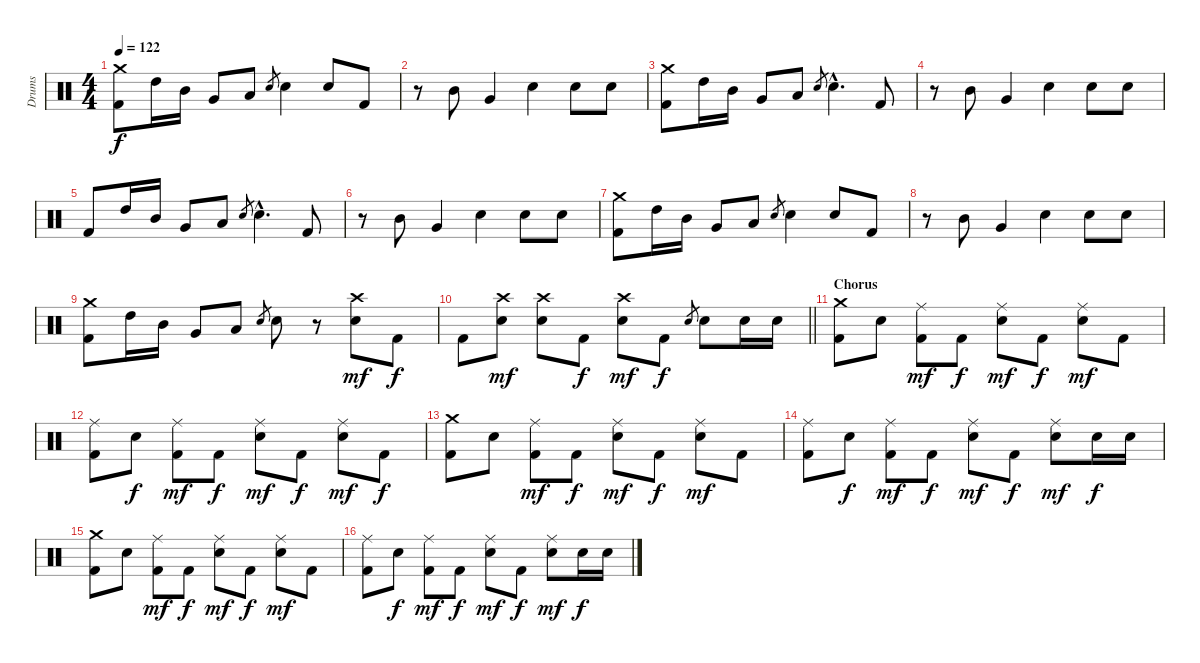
\track ("Drums" "Drums") {instrument percussion}
\staff {score}
\articulation defaults
\ts (4 4)
\tempo 122
\clef neutral
\ks c
("Kick (hit) 2" "Crash medium (hit)").8{dy f} "High Tom (hit)".16 "Mid Tom (hit)".16 "Very Low Tom (hit)".8 "Low Floor Tom (hit)".8 "Snare (hit) 2".8{gr} "Snare (hit) 2".4 "Snare (hit) 2".8 "Kick (hit) 2".8 |
r.8 "Mid Tom (hit)".8 "Very Low Tom (hit)".4 "Snare (hit) 2".4 "Snare (hit) 2".8 "Snare (hit) 2".8 |
("Kick (hit) 2" "Crash medium (hit)").8 "High Tom (hit)".16 "Mid Tom (hit)".16 "Very Low Tom (hit)".8 "Low Floor Tom (hit)".8 "Snare (hit) 2".8{gr} "Snare (hit) 2"{hac}.4{d} "Kick (hit) 2".8 |
r.8 "Mid Tom (hit)".8 "Very Low Tom (hit)".4 "Snare (hit) 2".4 "Snare (hit) 2".8 "Snare (hit) 2".8 |
"Kick (hit) 2".8 "High Tom (hit)".16 "Mid Tom (hit)".16 "Very Low Tom (hit)".8 "Low Floor Tom (hit)".8 "Snare (hit) 2".8{gr} "Snare (hit) 2"{hac}.4{d} "Kick (hit) 2".8 |
r.8 "Mid Tom (hit)".8 "Very Low Tom (hit)".4 "Snare (hit) 2".4 "Snare (hit) 2".8 "Snare (hit) 2".8 |
("Kick (hit) 2" "Crash medium (hit)").8 "High Tom (hit)".16 "Mid Tom (hit)".16 "Very Low Tom (hit)".8 "Low Floor Tom (hit)".8 "Snare (hit) 2".8{gr} "Snare (hit) 2".4 "Snare (hit) 2".8 "Kick (hit) 2".8 |
r.8 "Mid Tom (hit)".8 "Very Low Tom (hit)".4 "Snare (hit) 2".4 "Snare (hit) 2".8 "Snare (hit) 2".8 |
("Kick (hit) 2" "Crash medium (hit)").8 "High Tom (hit)".16 "Mid Tom (hit)".16 "Very Low Tom (hit)".8 "Low Floor Tom (hit)".8 "Snare (hit) 2".8{gr} "Snare (hit) 2".8 r.8 ("Snare (hit) 2" "Crash high (hit)").8{dy mf} "Kick (hit) 2".8{dy f} |
\barLineRight lightlight "Kick (hit) 2".8
("Crash high (hit)" "Snare (hit) 2").8{dy mf} ("Crash high (hit)" "Snare (hit) 2").8 "Kick (hit) 2".8{dy f} ("Crash high (hit)" "Snare (hit) 2").8{dy mf} "Kick (hit) 2".8{dy f} "Snare (hit) 2".8{gr} "Snare (hit) 2".8 "Snare (hit) 2".16 "Snare (hit) 2".16 |
\section ("" "Chorus")
("Crash medium (hit)" "Kick (hit) 2").8 "Snare (hit) 2".8 ("Kick (hit) 2" "Ride (middle)").8{dy mf} "Kick (hit) 2".8{dy f} ("Snare (hit) 2" "Ride (middle)").8{dy mf} "Kick (hit) 2".8{dy f} ("Snare (hit) 2" "Ride (middle)").8{dy mf} "Kick (hit) 2".8 |
("Kick (hit) 2" "Ride (middle)").8 "Snare (hit) 2".8{dy f} ("Kick (hit) 2" "Ride (middle)").8{dy mf} "Kick (hit) 2".8{dy f} ("Snare (hit) 2" "Ride (middle)").8{dy mf} "Kick (hit) 2".8{dy f} ("Snare (hit) 2" "Ride (middle)").8{dy mf} "Kick (hit) 2".8{dy f} |
("Crash medium (hit)" "Kick (hit) 2").8 "Snare (hit) 2".8 ("Kick (hit) 2" "Ride (middle)").8{dy mf} "Kick (hit) 2".8{dy f} ("Snare (hit) 2" "Ride (middle)").8{dy mf} "Kick (hit) 2".8{dy f} ("Snare (hit) 2" "Ride (middle)").8{dy mf} "Kick (hit) 2".8 |
("Kick (hit) 2" "Ride (middle)").8 "Snare (hit) 2".8{dy f} ("Kick (hit) 2" "Ride (middle)").8{dy mf} "Kick (hit) 2".8{dy f} ("Snare (hit) 2" "Ride (middle)").8{dy mf} "Kick (hit) 2".8{dy f} ("Snare (hit) 2" "Ride (middle)").8{dy mf} "Snare (hit) 2".16{dy f} "Snare (hit) 2".16 |
("Crash medium (hit)" "Kick (hit) 2").8 "Snare (hit) 2".8 ("Kick (hit) 2" "Ride (middle)").8{dy mf} "Kick (hit) 2".8{dy f} ("Snare (hit) 2" "Ride (middle)").8{dy mf} "Kick (hit) 2".8{dy f} ("Snare (hit) 2" "Ride (middle)").8{dy mf} "Kick (hit) 2".8 |
("Kick (hit) 2" "Ride (middle)").8 "Snare (hit) 2".8{dy f} ("Kick (hit) 2" "Ride (middle)").8{dy mf} "Kick (hit) 2".8{dy f} ("Snare (hit) 2" "Ride (middle)").8{dy mf} "Kick (hit) 2".8{dy f} ("Snare (hit) 2" "Ride (middle)").8{dy mf} "Snare (hit) 2".16{dy f} "Snare (hit) 2".16
